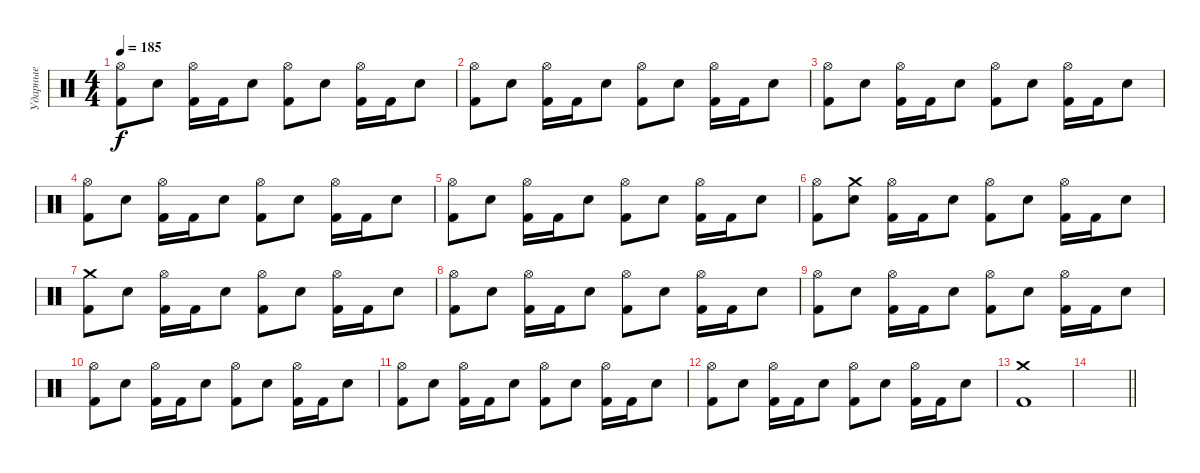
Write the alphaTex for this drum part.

\track ("Ударные" "Ударные") {instrument percussion}
\staff {score}
\articulation defaults
\ts (4 4)
\tempo 185
\clef neutral
\ks c
("Hi-Hat (open)" "Kick (hit) 2").8{dy f} "Electric Snare (hit)".8 ("Hi-Hat (open)" "Kick (hit) 2").16 "Kick (hit) 2".16 "Electric Snare (hit)".8 ("Hi-Hat (open)" "Kick (hit) 2").8 "Electric Snare (hit)".8 ("Hi-Hat (open)" "Kick (hit) 2").16 "Kick (hit) 2".16 "Electric Snare (hit)".8 |
("Hi-Hat (open)" "Kick (hit) 2").8 "Electric Snare (hit)".8 ("Hi-Hat (open)" "Kick (hit) 2").16 "Kick (hit) 2".16 "Electric Snare (hit)".8 ("Hi-Hat (open)" "Kick (hit) 2").8 "Electric Snare (hit)".8 ("Hi-Hat (open)" "Kick (hit) 2").16 "Kick (hit) 2".16 "Electric Snare (hit)".8 |
("Hi-Hat (open)" "Kick (hit) 2").8 "Electric Snare (hit)".8 ("Hi-Hat (open)" "Kick (hit) 2").16 "Kick (hit) 2".16 "Electric Snare (hit)".8 ("Hi-Hat (open)" "Kick (hit) 2").8 "Electric Snare (hit)".8 ("Hi-Hat (open)" "Kick (hit) 2").16 "Kick (hit) 2".16 "Electric Snare (hit)".8 |
("Hi-Hat (open)" "Kick (hit) 2").8 "Electric Snare (hit)".8 ("Hi-Hat (open)" "Kick (hit) 2").16 "Kick (hit) 2".16 "Electric Snare (hit)".8 ("Hi-Hat (open)" "Kick (hit) 2").8 "Electric Snare (hit)".8 ("Hi-Hat (open)" "Kick (hit) 2").16 "Kick (hit) 2".16 "Electric Snare (hit)".8 |
("Hi-Hat (open)" "Kick (hit) 2").8 "Electric Snare (hit)".8 ("Hi-Hat (open)" "Kick (hit) 2").16 "Kick (hit) 2".16 "Electric Snare (hit)".8 ("Hi-Hat (open)" "Kick (hit) 2").8 "Electric Snare (hit)".8 ("Hi-Hat (open)" "Kick (hit) 2").16 "Kick (hit) 2".16 "Electric Snare (hit)".8 |
("Hi-Hat (open)" "Kick (hit) 2").8 ("Crash medium (hit)" "Electric Snare (hit)").8 ("Hi-Hat (open)" "Kick (hit) 2").16 "Kick (hit) 2".16 "Electric Snare (hit)".8 ("Hi-Hat (open)" "Kick (hit) 2").8 "Electric Snare (hit)".8 ("Hi-Hat (open)" "Kick (hit) 2").16 "Kick (hit) 2".16 "Electric Snare (hit)".8 |
("Crash medium (hit)" "Kick (hit) 2").8 "Electric Snare (hit)".8 ("Hi-Hat (open)" "Kick (hit) 2").16 "Kick (hit) 2".16 "Electric Snare (hit)".8 ("Hi-Hat (open)" "Kick (hit) 2").8 "Electric Snare (hit)".8 ("Hi-Hat (open)" "Kick (hit) 2").16 "Kick (hit) 2".16 "Electric Snare (hit)".8 |
("Hi-Hat (open)" "Kick (hit) 2").8 "Electric Snare (hit)".8 ("Hi-Hat (open)" "Kick (hit) 2").16 "Kick (hit) 2".16 "Electric Snare (hit)".8 ("Hi-Hat (open)" "Kick (hit) 2").8 "Electric Snare (hit)".8 ("Hi-Hat (open)" "Kick (hit) 2").16 "Kick (hit) 2".16 "Electric Snare (hit)".8 |
("Hi-Hat (open)" "Kick (hit) 2").8 "Electric Snare (hit)".8 ("Hi-Hat (open)" "Kick (hit) 2").16 "Kick (hit) 2".16 "Electric Snare (hit)".8 ("Hi-Hat (open)" "Kick (hit) 2").8 "Electric Snare (hit)".8 ("Hi-Hat (open)" "Kick (hit) 2").16 "Kick (hit) 2".16 "Electric Snare (hit)".8 |
("Hi-Hat (open)" "Kick (hit) 2").8 "Electric Snare (hit)".8 ("Hi-Hat (open)" "Kick (hit) 2").16 "Kick (hit) 2".16 "Electric Snare (hit)".8 ("Hi-Hat (open)" "Kick (hit) 2").8 "Electric Snare (hit)".8 ("Hi-Hat (open)" "Kick (hit) 2").16 "Kick (hit) 2".16 "Electric Snare (hit)".8 |
("Hi-Hat (open)" "Kick (hit) 2").8 "Electric Snare (hit)".8 ("Hi-Hat (open)" "Kick (hit) 2").16 "Kick (hit) 2".16 "Electric Snare (hit)".8 ("Hi-Hat (open)" "Kick (hit) 2").8 "Electric Snare (hit)".8 ("Hi-Hat (open)" "Kick (hit) 2").16 "Kick (hit) 2".16 "Electric Snare (hit)".8 |
("Hi-Hat (open)" "Kick (hit) 2").8 "Electric Snare (hit)".8 ("Hi-Hat (open)" "Kick (hit) 2").16 "Kick (hit) 2".16 "Electric Snare (hit)".8 ("Hi-Hat (open)" "Kick (hit) 2").8 "Electric Snare (hit)".8 ("Hi-Hat (open)" "Kick (hit) 2").16 "Kick (hit) 2".16 "Electric Snare (hit)".8 |
("Crash medium (hit)" "Kick (hit) 2").1 |
\barLineRight lightlight
